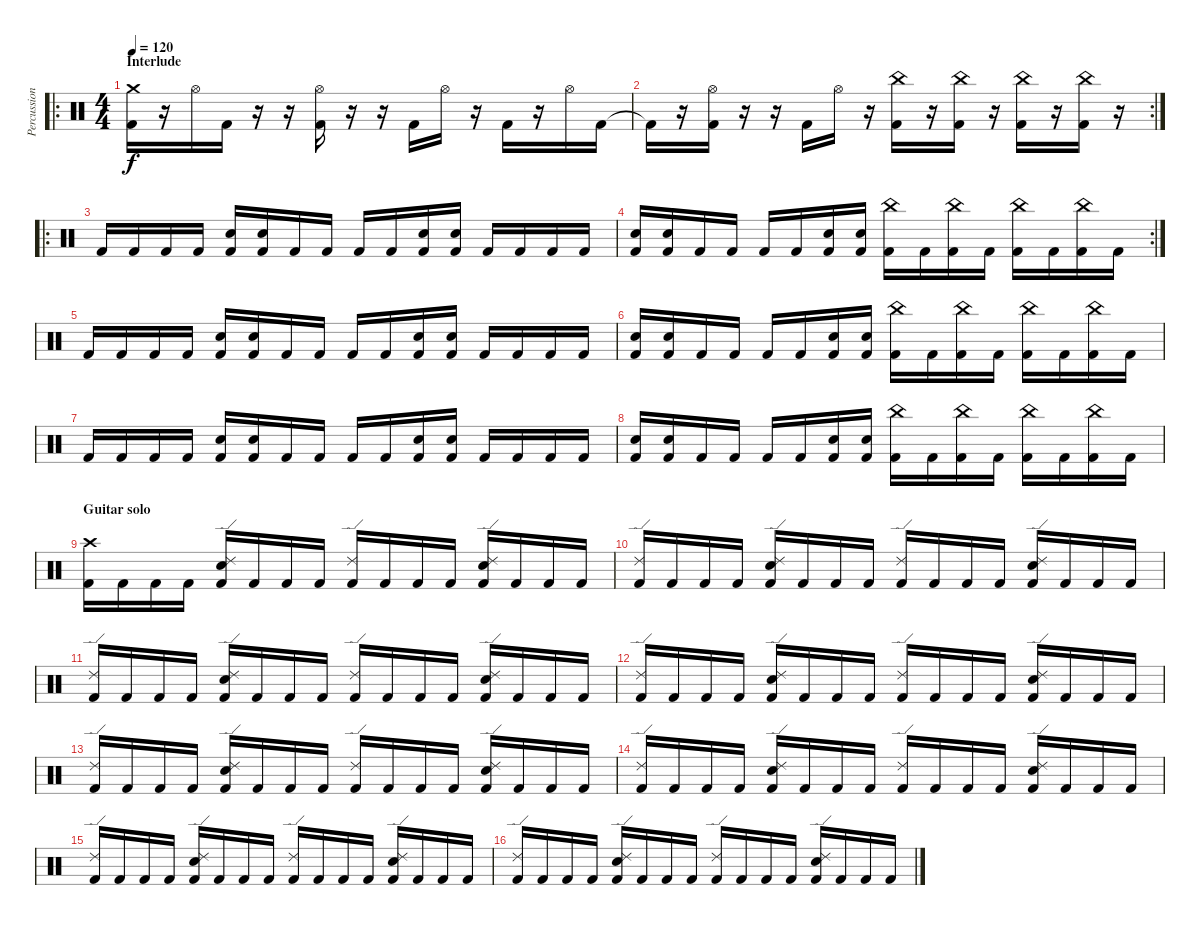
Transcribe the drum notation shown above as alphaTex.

\track ("Percussion" "Percussion") {instrument percussion}
\staff {score}
\articulation defaults
\ro
\ts (4 4)
\section ("" "Interlude")
\tempo 120
\clef neutral
\ks c
("Crash medium (hit)" "Kick (hit) 2").16{dy f} r.16 "Hi-Hat (open)".16 "Kick (hit) 2".16 r.16 r.16 ("Hi-Hat (open)" "Kick (hit) 2").16 r.16 r.16 "Kick (hit) 2".16 "Hi-Hat (open)".16 r.16 "Kick (hit) 2".16 r.16 "Hi-Hat (open)".16 "Kick (hit) 2".16 |
\rc 2 "Kick (hit) 2"{t}.16
r.16 ("Hi-Hat (open)" "Kick (hit) 2").16 r.16 r.16 "Kick (hit) 2".16 "Hi-Hat (open)".16 r.16 ("China (hit)" "Kick (hit) 2").16 r.16 ("China (hit)" "Kick (hit) 2").16 r.16 ("China (hit)" "Kick (hit) 2").16 r.16 ("China (hit)" "Kick (hit) 2").16 r.16 |
\ro "Kick (hit) 2".16 "Kick (hit) 2".16 "Kick (hit) 2".16 "Kick (hit) 2".16
("Snare (hit) 2" "Kick (hit) 2").16 ("Snare (hit) 2" "Kick (hit) 2").16 "Kick (hit) 2".16 "Kick (hit) 2".16 "Kick (hit) 2".16 "Kick (hit) 2".16 ("Snare (hit) 2" "Kick (hit) 2").16 ("Snare (hit) 2" "Kick (hit) 2").16 "Kick (hit) 2".16 "Kick (hit) 2".16 "Kick (hit) 2".16 "Kick (hit) 2".16 |
\rc 2
("Snare (hit) 2" "Kick (hit) 2").16 ("Snare (hit) 2" "Kick (hit) 2").16 "Kick (hit) 2".16 "Kick (hit) 2".16 "Kick (hit) 2".16 "Kick (hit) 2".16 ("Snare (hit) 2" "Kick (hit) 2").16 ("Snare (hit) 2" "Kick (hit) 2").16 ("China (hit)" "Kick (hit) 2").16 "Kick (hit) 2".16 ("China (hit)" "Kick (hit) 2").16 "Kick (hit) 2".16 ("China (hit)" "Kick (hit) 2").16 "Kick (hit) 2".16 ("China (hit)" "Kick (hit) 2").16 "Kick (hit) 2".16 |
"Kick (hit) 2".16 "Kick (hit) 2".16 "Kick (hit) 2".16 "Kick (hit) 2".16 ("Snare (hit) 2" "Kick (hit) 2").16 ("Snare (hit) 2" "Kick (hit) 2").16 "Kick (hit) 2".16 "Kick (hit) 2".16 "Kick (hit) 2".16 "Kick (hit) 2".16 ("Snare (hit) 2" "Kick (hit) 2").16 ("Snare (hit) 2" "Kick (hit) 2").16 "Kick (hit) 2".16 "Kick (hit) 2".16 "Kick (hit) 2".16 "Kick (hit) 2".16 |
("Snare (hit) 2" "Kick (hit) 2").16 ("Snare (hit) 2" "Kick (hit) 2").16 "Kick (hit) 2".16 "Kick (hit) 2".16 "Kick (hit) 2".16 "Kick (hit) 2".16 ("Snare (hit) 2" "Kick (hit) 2").16 ("Snare (hit) 2" "Kick (hit) 2").16 ("China (hit)" "Kick (hit) 2").16 "Kick (hit) 2".16 ("China (hit)" "Kick (hit) 2").16 "Kick (hit) 2".16 ("China (hit)" "Kick (hit) 2").16 "Kick (hit) 2".16 ("China (hit)" "Kick (hit) 2").16 "Kick (hit) 2".16 |
"Kick (hit) 2".16 "Kick (hit) 2".16 "Kick (hit) 2".16 "Kick (hit) 2".16 ("Snare (hit) 2" "Kick (hit) 2").16 ("Snare (hit) 2" "Kick (hit) 2").16 "Kick (hit) 2".16 "Kick (hit) 2".16 "Kick (hit) 2".16 "Kick (hit) 2".16 ("Snare (hit) 2" "Kick (hit) 2").16 ("Snare (hit) 2" "Kick (hit) 2").16 "Kick (hit) 2".16 "Kick (hit) 2".16 "Kick (hit) 2".16 "Kick (hit) 2".16 |
("Snare (hit) 2" "Kick (hit) 2").16 ("Snare (hit) 2" "Kick (hit) 2").16 "Kick (hit) 2".16 "Kick (hit) 2".16 "Kick (hit) 2".16 "Kick (hit) 2".16 ("Snare (hit) 2" "Kick (hit) 2").16 ("Snare (hit) 2" "Kick (hit) 2").16 ("China (hit)" "Kick (hit) 2").16 "Kick (hit) 2".16 ("China (hit)" "Kick (hit) 2").16 "Kick (hit) 2".16 ("China (hit)" "Kick (hit) 2").16 "Kick (hit) 2".16 ("China (hit)" "Kick (hit) 2").16 "Kick (hit) 2".16 |
\section ("" "Guitar solo")
("Crash high (hit)" "Kick (hit) 2").16 "Kick (hit) 2".16 "Kick (hit) 2".16 "Kick (hit) 2".16 ("Ride (edge) 2" "Snare (hit) 2" "Kick (hit) 2").16 "Kick (hit) 2".16 "Kick (hit) 2".16 "Kick (hit) 2".16 ("Ride (edge) 2" "Kick (hit) 2").16 "Kick (hit) 2".16 "Kick (hit) 2".16 "Kick (hit) 2".16 ("Ride (edge) 2" "Snare (hit) 2" "Kick (hit) 2").16 "Kick (hit) 2".16 "Kick (hit) 2".16 "Kick (hit) 2".16 |
("Ride (edge) 2" "Kick (hit) 2").16 "Kick (hit) 2".16 "Kick (hit) 2".16 "Kick (hit) 2".16 ("Ride (edge) 2" "Snare (hit) 2" "Kick (hit) 2").16 "Kick (hit) 2".16 "Kick (hit) 2".16 "Kick (hit) 2".16 ("Ride (edge) 2" "Kick (hit) 2").16 "Kick (hit) 2".16 "Kick (hit) 2".16 "Kick (hit) 2".16 ("Ride (edge) 2" "Snare (hit) 2" "Kick (hit) 2").16 "Kick (hit) 2".16 "Kick (hit) 2".16 "Kick (hit) 2".16 |
("Ride (edge) 2" "Kick (hit) 2").16 "Kick (hit) 2".16 "Kick (hit) 2".16 "Kick (hit) 2".16 ("Ride (edge) 2" "Snare (hit) 2" "Kick (hit) 2").16 "Kick (hit) 2".16 "Kick (hit) 2".16 "Kick (hit) 2".16 ("Ride (edge) 2" "Kick (hit) 2").16 "Kick (hit) 2".16 "Kick (hit) 2".16 "Kick (hit) 2".16 ("Ride (edge) 2" "Snare (hit) 2" "Kick (hit) 2").16 "Kick (hit) 2".16 "Kick (hit) 2".16 "Kick (hit) 2".16 |
("Ride (edge) 2" "Kick (hit) 2").16 "Kick (hit) 2".16 "Kick (hit) 2".16 "Kick (hit) 2".16 ("Ride (edge) 2" "Snare (hit) 2" "Kick (hit) 2").16 "Kick (hit) 2".16 "Kick (hit) 2".16 "Kick (hit) 2".16 ("Ride (edge) 2" "Kick (hit) 2").16 "Kick (hit) 2".16 "Kick (hit) 2".16 "Kick (hit) 2".16 ("Ride (edge) 2" "Snare (hit) 2" "Kick (hit) 2").16 "Kick (hit) 2".16 "Kick (hit) 2".16 "Kick (hit) 2".16 |
("Ride (edge) 2" "Kick (hit) 2").16 "Kick (hit) 2".16 "Kick (hit) 2".16 "Kick (hit) 2".16 ("Ride (edge) 2" "Snare (hit) 2" "Kick (hit) 2").16 "Kick (hit) 2".16 "Kick (hit) 2".16 "Kick (hit) 2".16 ("Ride (edge) 2" "Kick (hit) 2").16 "Kick (hit) 2".16 "Kick (hit) 2".16 "Kick (hit) 2".16 ("Ride (edge) 2" "Snare (hit) 2" "Kick (hit) 2").16 "Kick (hit) 2".16 "Kick (hit) 2".16 "Kick (hit) 2".16 |
("Ride (edge) 2" "Kick (hit) 2").16 "Kick (hit) 2".16 "Kick (hit) 2".16 "Kick (hit) 2".16 ("Ride (edge) 2" "Snare (hit) 2" "Kick (hit) 2").16 "Kick (hit) 2".16 "Kick (hit) 2".16 "Kick (hit) 2".16 ("Ride (edge) 2" "Kick (hit) 2").16 "Kick (hit) 2".16 "Kick (hit) 2".16 "Kick (hit) 2".16 ("Ride (edge) 2" "Snare (hit) 2" "Kick (hit) 2").16 "Kick (hit) 2".16 "Kick (hit) 2".16 "Kick (hit) 2".16 |
("Ride (edge) 2" "Kick (hit) 2").16 "Kick (hit) 2".16 "Kick (hit) 2".16 "Kick (hit) 2".16 ("Ride (edge) 2" "Snare (hit) 2" "Kick (hit) 2").16 "Kick (hit) 2".16 "Kick (hit) 2".16 "Kick (hit) 2".16 ("Ride (edge) 2" "Kick (hit) 2").16 "Kick (hit) 2".16 "Kick (hit) 2".16 "Kick (hit) 2".16 ("Ride (edge) 2" "Snare (hit) 2" "Kick (hit) 2").16 "Kick (hit) 2".16 "Kick (hit) 2".16 "Kick (hit) 2".16 |
("Ride (edge) 2" "Kick (hit) 2").16 "Kick (hit) 2".16 "Kick (hit) 2".16 "Kick (hit) 2".16 ("Ride (edge) 2" "Snare (hit) 2" "Kick (hit) 2").16 "Kick (hit) 2".16 "Kick (hit) 2".16 "Kick (hit) 2".16 ("Ride (edge) 2" "Kick (hit) 2").16 "Kick (hit) 2".16 "Kick (hit) 2".16 "Kick (hit) 2".16 ("Ride (edge) 2" "Snare (hit) 2" "Kick (hit) 2").16 "Kick (hit) 2".16 "Kick (hit) 2".16 "Kick (hit) 2".16
